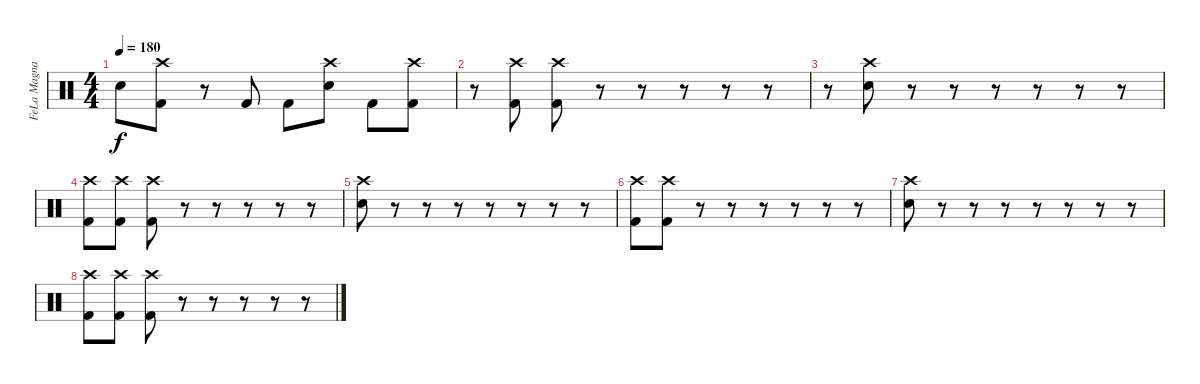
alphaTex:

\track ("FeLa Magnani" "FeLa Magna") {instrument percussion}
\staff {score}
\articulation defaults
\ts (4 4)
\tempo 180
\clef neutral
\ks c "Electric Snare (hit)".8{dy f}
("Crash high (hit)" "Kick (hit) 2").8 r.8 "Kick (hit) 2".8 "Kick (hit) 2".8 ("Crash high (hit)" "Electric Snare (hit)").8 "Kick (hit) 2".8 ("Crash high (hit)" "Kick (hit) 2").8 |
r.8 ("Crash high (hit)" "Kick (hit) 2").8 ("Crash high (hit)" "Kick (hit) 2").8 r.8 r.8 r.8 r.8 r.8 |
r.8 ("Electric Snare (hit)" "Crash high (hit)").8 r.8 r.8 r.8 r.8 r.8 r.8 |
("Crash high (hit)" "Kick (hit) 2").8 ("Crash high (hit)" "Kick (hit) 2").8 ("Crash high (hit)" "Kick (hit) 2").8 r.8 r.8 r.8 r.8 r.8 |
("Crash high (hit)" "Electric Snare (hit)").8 r.8 r.8 r.8 r.8 r.8 r.8 r.8 |
("Crash high (hit)" "Kick (hit) 2").8 ("Crash high (hit)" "Kick (hit) 2").8 r.8 r.8 r.8 r.8 r.8 r.8 |
("Electric Snare (hit)" "Crash high (hit)").8 r.8 r.8 r.8 r.8 r.8 r.8 r.8 |
("Crash high (hit)" "Kick (hit) 2").8 ("Crash high (hit)" "Kick (hit) 2").8 ("Crash high (hit)" "Kick (hit) 2").8 r.8 r.8 r.8 r.8 r.8
